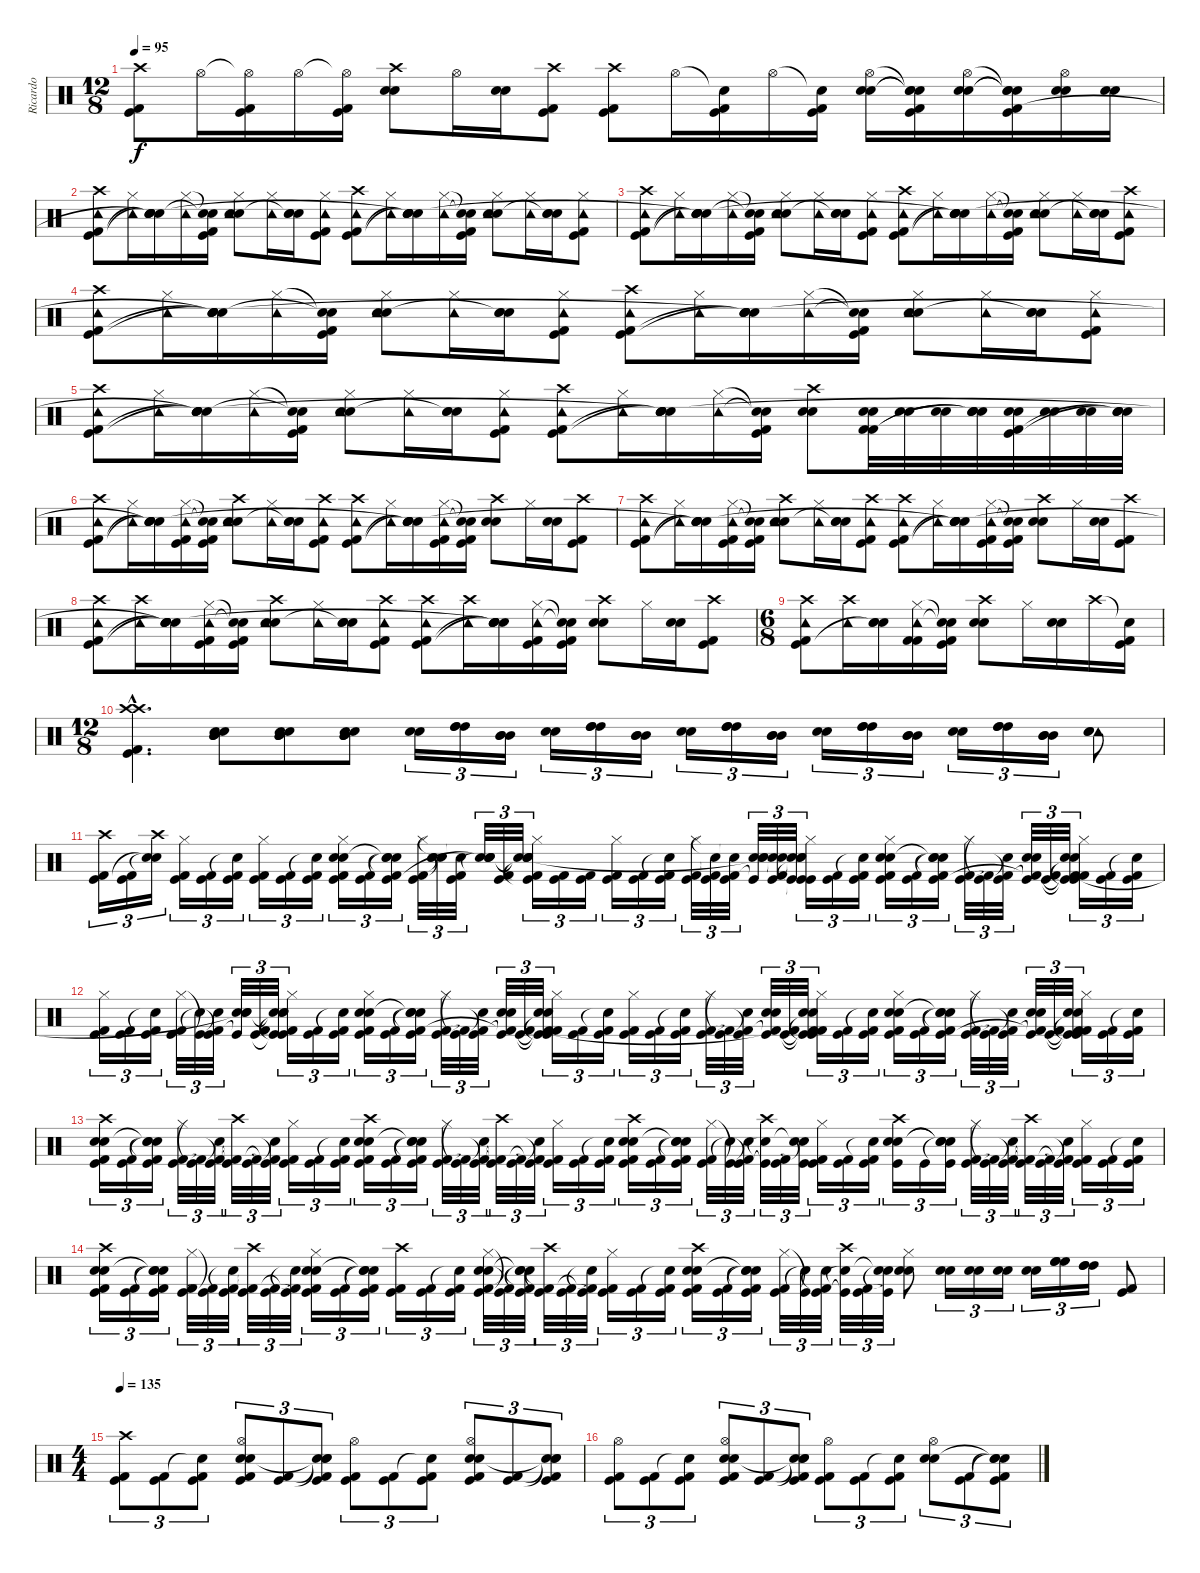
\track ("Ricardo" "Ricardo") {instrument percussion}
\staff {score}
\articulation defaults
\ts (12 8)
\tempo 95
\clef neutral
\ks c
("Crash high (hit)" "Kick (hit)" "Kick (hit) 2").8{dy f} "Hi-Hat (open)".16 ("Hi-Hat (open)"{t} "Kick (hit)" "Kick (hit) 2").16 "Hi-Hat (open)".16 ("Hi-Hat (open)"{t} "Kick (hit)" "Kick (hit) 2").16 ("Crash high (hit)" "Electric Snare (hit)" "Snare (hit) 2").8 "Hi-Hat (open)".16 ("Electric Snare (hit)" "Snare (hit) 2").16 ("Crash high (hit)" "Kick (hit)" "Kick (hit) 2").8 ("Crash high (hit)" "Kick (hit)" "Kick (hit) 2").8 "Hi-Hat (open)".16 ("Snare (hit)"{t} "Kick (hit)" "Kick (hit) 2").16 "Hi-Hat (open)".16 ("Snare (hit)"{t} "Kick (hit)" "Kick (hit) 2").16 ("Hi-Hat (open)" "Electric Snare (hit)" "Snare (hit) 2").16 ("Snare (hit)"{t} "Snare (hit)"{t} "Snare (hit)"{t} "Kick (hit)" "Kick (hit) 2").16 ("Hi-Hat (open)" "Electric Snare (hit)" "Snare (hit) 2").16 ("Snare (hit)"{t} "Snare (hit)"{t} "Snare (hit)"{t} "Kick (hit)" "Kick (hit) 2").16 ("Hi-Hat (open)" "Electric Snare (hit)" "Snare (hit) 2").16 ("Electric Snare (hit)" "Snare (hit) 2").16 |
("Crash high (hit)" "Tambourine (hit)" "Kick (hit) 2" "Kick (hit)").8 ("Hi-Hat (closed)" "Tambourine (hit)").16 ("Electric Snare (hit)" "Snare (hit) 2" "Snare (hit)"{t} "Snare (hit)"{t} "Snare (hit)"{t}).16 ("Hi-Hat (closed)" "Tambourine (hit)").16 ("Snare (hit)"{t} "Kick (hit)" "Kick (hit) 2" "Snare (hit)"{t}).16 ("Hi-Hat (closed)" "Electric Snare (hit)" "Snare (hit) 2" "Tambourine (hit)").8 ("Hi-Hat (closed)" "Tambourine (hit)").16 ("Electric Snare (hit)" "Snare (hit) 2" "Snare (hit)"{t}).16 ("Hi-Hat (closed)" "Tambourine (hit)" "Kick (hit)" "Kick (hit) 2").8 ("Crash high (hit)" "Tambourine (hit)" "Kick (hit)" "Kick (hit) 2").8 ("Hi-Hat (closed)" "Tambourine (hit)").16 ("Electric Snare (hit)" "Snare (hit) 2" "Snare (hit)"{t} "Snare (hit)"{t} "Snare (hit)"{t}).16 ("Hi-Hat (closed)" "Tambourine (hit)").16 ("Snare (hit)"{t} "Snare (hit)"{t} "Kick (hit) 2" "Kick (hit)").16 ("Hi-Hat (closed)" "Electric Snare (hit)" "Snare (hit) 2" "Tambourine (hit)").8 ("Hi-Hat (closed)" "Tambourine (hit)").16 ("Electric Snare (hit)" "Snare (hit) 2" "Snare (hit)"{t}).16 ("Hi-Hat (closed)" "Tambourine (hit)" "Kick (hit)" "Kick (hit) 2").8 |
("Crash high (hit)" "Tambourine (hit)" "Kick (hit) 2" "Kick (hit)").8 ("Hi-Hat (closed)" "Tambourine (hit)").16 ("Electric Snare (hit)" "Snare (hit) 2" "Snare (hit)"{t} "Snare (hit)"{t} "Snare (hit)"{t}).16 ("Hi-Hat (closed)" "Tambourine (hit)").16 ("Snare (hit)"{t} "Kick (hit)" "Kick (hit) 2" "Snare (hit)"{t}).16 ("Hi-Hat (closed)" "Electric Snare (hit)" "Snare (hit) 2" "Tambourine (hit)").8 ("Hi-Hat (closed)" "Tambourine (hit)").16 ("Electric Snare (hit)" "Snare (hit) 2" "Snare (hit)"{t}).16 ("Hi-Hat (closed)" "Tambourine (hit)" "Kick (hit)" "Kick (hit) 2").8 ("Crash high (hit)" "Tambourine (hit)" "Kick (hit)" "Kick (hit) 2").8 ("Hi-Hat (closed)" "Tambourine (hit)").16 ("Electric Snare (hit)" "Snare (hit) 2" "Snare (hit)"{t} "Snare (hit)"{t} "Snare (hit)"{t}).16 ("Hi-Hat (closed)" "Tambourine (hit)").16 ("Snare (hit)"{t} "Snare (hit)"{t} "Kick (hit) 2" "Kick (hit)").16 ("Hi-Hat (closed)" "Electric Snare (hit)" "Snare (hit) 2" "Tambourine (hit)").8 ("Hi-Hat (closed)" "Tambourine (hit)").16 ("Electric Snare (hit)" "Snare (hit) 2" "Snare (hit)"{t}).16 ("Crash high (hit)" "Tambourine (hit)" "Kick (hit)" "Kick (hit) 2").8 |
("Crash high (hit)" "Tambourine (hit)" "Kick (hit) 2" "Kick (hit)").8 ("Hi-Hat (closed)" "Tambourine (hit)").16 ("Electric Snare (hit)" "Snare (hit) 2" "Snare (hit)"{t} "Snare (hit)"{t} "Snare (hit)"{t}).16 ("Hi-Hat (closed)" "Tambourine (hit)").16 ("Snare (hit)"{t} "Kick (hit)" "Kick (hit) 2" "Snare (hit)"{t}).16 ("Hi-Hat (closed)" "Electric Snare (hit)" "Snare (hit) 2" "Tambourine (hit)").8 ("Hi-Hat (closed)" "Tambourine (hit)").16 ("Electric Snare (hit)" "Snare (hit) 2" "Snare (hit)"{t}).16 ("Hi-Hat (closed)" "Tambourine (hit)" "Kick (hit)" "Kick (hit) 2").8 ("Crash high (hit)" "Tambourine (hit)" "Kick (hit)" "Kick (hit) 2").8 ("Hi-Hat (closed)" "Tambourine (hit)").16 ("Electric Snare (hit)" "Snare (hit) 2" "Snare (hit)"{t} "Snare (hit)"{t} "Snare (hit)"{t}).16 ("Hi-Hat (closed)" "Tambourine (hit)").16 ("Snare (hit)"{t} "Snare (hit)"{t} "Kick (hit) 2" "Kick (hit)").16 ("Hi-Hat (closed)" "Electric Snare (hit)" "Snare (hit) 2" "Tambourine (hit)").8 ("Hi-Hat (closed)" "Tambourine (hit)").16 ("Electric Snare (hit)" "Snare (hit) 2" "Snare (hit)"{t}).16 ("Hi-Hat (closed)" "Tambourine (hit)" "Kick (hit)" "Kick (hit) 2").8 |
("Crash high (hit)" "Tambourine (hit)" "Kick (hit) 2" "Kick (hit)").8 ("Hi-Hat (closed)" "Tambourine (hit)").16 ("Electric Snare (hit)" "Snare (hit) 2" "Snare (hit)"{t} "Snare (hit)"{t} "Snare (hit)"{t}).16 ("Hi-Hat (closed)" "Tambourine (hit)").16 ("Snare (hit)"{t} "Kick (hit)" "Kick (hit) 2" "Snare (hit)"{t}).16 ("Hi-Hat (closed)" "Electric Snare (hit)" "Snare (hit) 2" "Tambourine (hit)").8 ("Hi-Hat (closed)" "Tambourine (hit)").16 ("Electric Snare (hit)" "Snare (hit) 2" "Snare (hit)"{t}).16 ("Hi-Hat (closed)" "Tambourine (hit)" "Kick (hit)" "Kick (hit) 2").8 ("Crash high (hit)" "Tambourine (hit)" "Kick (hit)" "Kick (hit) 2").8 ("Hi-Hat (closed)" "Tambourine (hit)").16 ("Electric Snare (hit)" "Snare (hit) 2" "Snare (hit)"{t} "Snare (hit)"{t} "Snare (hit)"{t}).16 ("Hi-Hat (closed)" "Tambourine (hit)").16 ("Snare (hit)"{t} "Snare (hit)"{t} "Kick (hit) 2" "Kick (hit)").16 ("Crash high (hit)" "Electric Snare (hit)" "Snare (hit) 2").8 ("Electric Snare (hit)" "Snare (hit) 2" "Kick (hit) 2" "Kick (hit) 2").32 ("Electric Snare (hit)" "Snare (hit) 2").32 ("Electric Snare (hit)" "Snare (hit) 2").32 ("Electric Snare (hit)" "Snare (hit) 2" "Snare (hit)"{t} "Snare (hit)"{t}).32 ("Electric Snare (hit)" "Snare (hit) 2" "Kick (hit)" "Kick (hit) 2").32 ("Electric Snare (hit)" "Snare (hit) 2").32 ("Electric Snare (hit)" "Snare (hit) 2").32 ("Electric Snare (hit)" "Snare (hit) 2" "Snare (hit)"{t} "Snare (hit)"{t}).32 |
("Crash high (hit)" "Tambourine (hit)" "Kick (hit)" "Kick (hit) 2").8 ("Hi-Hat (closed)" "Tambourine (hit)").16 ("Electric Snare (hit)" "Snare (hit) 2" "Snare (hit)"{t} "Snare (hit)"{t} "Snare (hit)"{t}).16 ("Hi-Hat (closed)" "Tambourine (hit)" "Kick (hit)" "Kick (hit) 2").16 ("Snare (hit)"{t} "Snare (hit)"{t} "Kick (hit)" "Kick (hit) 2").16 ("Crash high (hit)" "Electric Snare (hit)" "Snare (hit) 2" "Tambourine (hit)").8 ("Hi-Hat (closed)" "Tambourine (hit)").16 ("Electric Snare (hit)" "Snare (hit) 2" "Snare (hit)"{t}).16 ("Crash high (hit)" "Tambourine (hit)" "Kick (hit)" "Kick (hit) 2").8 ("Crash high (hit)" "Tambourine (hit)" "Kick (hit)" "Kick (hit) 2").8 ("Hi-Hat (closed)" "Tambourine (hit)").16 ("Electric Snare (hit)" "Snare (hit) 2" "Snare (hit)"{t} "Snare (hit)"{t} "Snare (hit)"{t}).16 ("Hi-Hat (closed)" "Tambourine (hit)" "Kick (hit)" "Kick (hit) 2").16 ("Snare (hit)"{t} "Snare (hit)"{t} "Kick (hit)" "Kick (hit) 2").16 ("Crash high (hit)" "Electric Snare (hit)" "Snare (hit) 2").8 "Hi-Hat (closed)".16 ("Electric Snare (hit)" "Snare (hit) 2").16 ("Crash high (hit)" "Kick (hit)" "Kick (hit) 2").8 |
("Crash high (hit)" "Tambourine (hit)" "Kick (hit)" "Kick (hit) 2").8 ("Hi-Hat (closed)" "Tambourine (hit)").16 ("Electric Snare (hit)" "Snare (hit) 2" "Snare (hit)"{t} "Snare (hit)"{t} "Snare (hit)"{t}).16 ("Hi-Hat (closed)" "Tambourine (hit)" "Kick (hit)" "Kick (hit) 2").16 ("Snare (hit)"{t} "Snare (hit)"{t} "Kick (hit)" "Kick (hit) 2").16 ("Crash high (hit)" "Electric Snare (hit)" "Snare (hit) 2" "Tambourine (hit)").8 ("Hi-Hat (closed)" "Tambourine (hit)").16 ("Electric Snare (hit)" "Snare (hit) 2" "Snare (hit)"{t}).16 ("Crash high (hit)" "Tambourine (hit)" "Kick (hit)" "Kick (hit) 2").8 ("Crash high (hit)" "Tambourine (hit)" "Kick (hit)" "Kick (hit) 2").8 ("Hi-Hat (closed)" "Tambourine (hit)").16 ("Electric Snare (hit)" "Snare (hit) 2" "Snare (hit)"{t} "Snare (hit)"{t} "Snare (hit)"{t}).16 ("Hi-Hat (closed)" "Tambourine (hit)" "Kick (hit)" "Kick (hit) 2").16 ("Snare (hit)"{t} "Snare (hit)"{t} "Kick (hit)" "Kick (hit) 2").16 ("Crash high (hit)" "Electric Snare (hit)" "Snare (hit) 2").8 "Hi-Hat (closed)".16 ("Electric Snare (hit)" "Snare (hit) 2").16 ("Crash high (hit)" "Kick (hit)" "Kick (hit) 2").8 |
("Crash high (hit)" "Tambourine (hit)" "Kick (hit)" "Kick (hit) 2").8 ("Crash high (hit)" "Tambourine (hit)").16 ("Electric Snare (hit)" "Snare (hit) 2" "Snare (hit)"{t} "Snare (hit)"{t} "Snare (hit)"{t}).16 ("Hi-Hat (closed)" "Tambourine (hit)" "Kick (hit)" "Kick (hit) 2").16 ("Snare (hit)"{t} "Snare (hit)"{t} "Kick (hit)" "Kick (hit) 2").16 ("Crash high (hit)" "Electric Snare (hit)" "Snare (hit) 2" "Tambourine (hit)").8 ("Hi-Hat (closed)" "Tambourine (hit)").16 ("Electric Snare (hit)" "Snare (hit) 2" "Snare (hit)"{t}).16 ("Crash high (hit)" "Tambourine (hit)" "Kick (hit)" "Kick (hit) 2").8 ("Crash high (hit)" "Tambourine (hit)" "Kick (hit)" "Kick (hit) 2").8 ("Crash high (hit)" "Tambourine (hit)").16 ("Electric Snare (hit)" "Snare (hit) 2" "Snare (hit)"{t} "Snare (hit)"{t} "Snare (hit)"{t}).16 ("Hi-Hat (closed)" "Tambourine (hit)" "Kick (hit)" "Kick (hit) 2").16 ("Snare (hit)"{t} "Snare (hit)"{t} "Kick (hit)" "Kick (hit) 2").16 ("Crash high (hit)" "Electric Snare (hit)" "Snare (hit) 2").8 "Hi-Hat (closed)".16 ("Electric Snare (hit)" "Snare (hit) 2").16 ("Crash high (hit)" "Kick (hit)" "Kick (hit) 2").8 |
\ts (6 8)
("Crash high (hit)" "Kick (hit) 2" "Kick (hit)" "Tambourine (hit)").8 ("Crash high (hit)" "Tambourine (hit)").16 ("Electric Snare (hit)" "Snare (hit) 2" "Snare (hit)"{t}).16 ("Hi-Hat (closed)" "Tambourine (hit)" "Kick (hit) 2" "Kick (hit) 2").16 ("Snare (hit)"{t} "Snare (hit)"{t} "Kick (hit)" "Kick (hit) 2").16 ("Crash high (hit)" "Electric Snare (hit)" "Snare (hit) 2").8 "Hi-Hat (closed)".16 ("Electric Snare (hit)" "Snare (hit) 2").16 "Crash high (hit)".16 ("Snare (hit)"{t} "Kick (hit)" "Kick (hit) 2").16 |
\ts (12 8)
("Crash high (hit)"{hac} "Crash high (hit)"{hac} "Kick (hit)"{hac} "Kick (hit) 2"{hac}).4{d} ("Electric Snare (hit)" "Snare (hit) 2" "Mid Tom (hit)" "Mid Tom (hit)" "Mid Tom (hit)").8 ("Electric Snare (hit)" "Snare (hit) 2" "Mid Tom (hit)" "Mid Tom (hit)" "Mid Tom (hit)").8 ("Electric Snare (hit)" "Snare (hit) 2" "Mid Tom (hit)" "Mid Tom (hit)" "Mid Tom (hit)").8 ("Electric Snare (hit)" "Snare (hit) 2").16{tu (3 2)} ("High Tom (hit)" "High Tom (hit)" "High Tom (hit)").16{tu (3 2)} ("Mid Tom (hit)" "Mid Tom (hit)" "Mid Tom (hit)").16{tu (3 2)} ("Electric Snare (hit)" "Snare (hit) 2").16{tu (3 2)} ("High Tom (hit)" "High Tom (hit)" "High Tom (hit)").16{tu (3 2)} ("Mid Tom (hit)" "Mid Tom (hit)" "Mid Tom (hit)").16{tu (3 2)} ("Electric Snare (hit)" "Snare (hit) 2").16{tu (3 2)} ("High Tom (hit)" "High Tom (hit)" "High Tom (hit)").16{tu (3 2)} ("Mid Tom (hit)" "Mid Tom (hit)" "Mid Tom (hit)").16{tu (3 2)} ("Electric Snare (hit)" "Snare (hit) 2").16{tu (3 2)} ("High Tom (hit)" "High Tom (hit)" "High Tom (hit)").16{tu (3 2)} ("Mid Tom (hit)" "Mid Tom (hit)" "Mid Tom (hit)").16{tu (3 2)} ("Electric Snare (hit)" "Snare (hit) 2").16{tu (3 2)} ("High Tom (hit)" "High Tom (hit)" "High Tom (hit)").16{tu (3 2)} ("Mid Tom (hit)" "Mid Tom (hit)" "Mid Tom (hit)").16{tu (3 2)} ("Tambourine (hit)" "Electric Snare (hit)" "Snare (hit) 2").8 |
("Crash high (hit)" "Kick (hit) 2" "Kick (hit)").16{tu (3 2)} ("Kick (hit)" "Kick (hit) 2").16{tu (3 2)} ("Crash high (hit)" "Snare (hit)"{t} "Snare (hit)"{t}).16{tu (3 2)} ("Hi-Hat (closed)" "Kick (hit)" "Kick (hit) 2").16{tu (3 2)} ("Kick (hit)" "Kick (hit) 2").16{tu (3 2)} ("Snare (hit)"{t} "Kick (hit)" "Kick (hit) 2").16{tu (3 2)} ("Hi-Hat (closed)" "Kick (hit)" "Kick (hit) 2").16{tu (3 2)} ("Kick (hit)" "Kick (hit) 2").16{tu (3 2)} ("Snare (hit)"{t} "Kick (hit)" "Kick (hit) 2").16{tu (3 2)} ("Hi-Hat (closed)" "Electric Snare (hit)" "Snare (hit) 2" "Kick (hit)" "Kick (hit) 2").16{tu (3 2)} ("Kick (hit)" "Kick (hit) 2").16{tu (3 2)} ("Snare (hit)"{t} "Snare (hit)"{t} "Snare (hit)"{t} "Kick (hit)" "Kick (hit) 2").16{tu (3 2)} ("Hi-Hat (closed)" "Kick (hit)" "Kick (hit) 2").32{tu (3 2)} ("Snare (hit)"{t} "Snare (hit)"{t} "Snare (hit)"{t}).32{tu (3 2)} ("Snare (hit)"{t} "Kick (hit)" "Kick (hit) 2").32{tu (3 2)} ("Electric Snare (hit)" "Snare (hit) 2" "Snare (hit)"{t} "Snare (hit)"{t}).32{tu (3 2)} ("Kick (hit)" "Kick (hit) 2").32{tu (3 2)} ("Snare (hit)"{t} "Snare (hit)"{t} "Snare (hit)"{t} "Snare (hit)"{t}).32{tu (3 2)} ("Hi-Hat (closed)" "Kick (hit)" "Kick (hit) 2").16{tu (3 2)} ("Kick (hit)" "Kick (hit) 2").16{tu (3 2)} ("Kick (hit)" "Kick (hit) 2").16{tu (3 2)} ("Hi-Hat (closed)" "Kick (hit)" "Kick (hit) 2").16{tu (3 2)} ("Kick (hit)" "Kick (hit) 2").16{tu (3 2)} ("Snare (hit)"{t} "Kick (hit)" "Kick (hit) 2").16{tu (3 2)} ("Hi-Hat (closed)" "Kick (hit)" "Kick (hit) 2").32{tu (3 2)} ("Snare (hit)"{t} "Kick (hit)"{t} "Kick (hit) 2"{t}).32{tu (3 2)} ("Snare (hit)"{t} "Kick (hit)" "Kick (hit) 2").32{tu (3 2)} ("Electric Snare (hit)" "Snare (hit) 2" "Kick (hit)"{t} "Snare (hit)"{t}).32{tu (3 2)} ("Snare (hit)"{t} "Snare (hit)"{t} "Kick (hit)" "Kick (hit) 2").32{tu (3 2)} ("Snare (hit)"{t} "Snare (hit)"{t} "Kick (hit)"{t} "Snare (hit)"{t}).32{tu (3 2)} ("Hi-Hat (closed)" "Kick (hit)" "Kick (hit)").16{tu (3 2)} ("Kick (hit)" "Kick (hit) 2").16{tu (3 2)} ("Snare (hit)"{t} "Kick (hit) 2" "Kick (hit)").16{tu (3 2)} ("Hi-Hat (closed)" "Electric Snare (hit)" "Snare (hit) 2" "Kick (hit)" "Kick (hit) 2").16{tu (3 2)} ("Kick (hit)" "Kick (hit) 2").16{tu (3 2)} ("Snare (hit)"{t} "Snare (hit)"{t} "Snare (hit)"{t} "Kick (hit)" "Kick (hit) 2").16{tu (3 2)} ("Hi-Hat (closed)" "Kick (hit)" "Kick (hit) 2").32{tu (3 2)} ("Kick (hit)"{t} "Kick (hit) 2"{t}).32{tu (3 2)} ("Snare (hit)"{t} "Kick (hit)" "Kick (hit) 2").32{tu (3 2)} ("Electric Snare (hit)" "Snare (hit) 2" "Kick (hit)"{t} "Kick (hit) 2"{t}).32{tu (3 2)} ("Kick (hit)" "Kick (hit) 2").32{tu (3 2)} ("Snare (hit)"{t} "Snare (hit)"{t} "Kick (hit)"{t} "Kick (hit) 2"{t}).32{tu (3 2)} ("Hi-Hat (closed)" "Kick (hit)" "Kick (hit) 2").16{tu (3 2)} ("Kick (hit)" "Kick (hit) 2").16{tu (3 2)} ("Snare (hit)"{t} "Kick (hit)" "Kick (hit) 2").16{tu (3 2)} |
("Hi-Hat (closed)" "Kick (hit)" "Kick (hit) 2").16{tu (3 2)} ("Kick (hit)" "Kick (hit) 2").16{tu (3 2)} ("Snare (hit)"{t} "Kick (hit)" "Kick (hit) 2").16{tu (3 2)} ("Hi-Hat (closed)" "Kick (hit)" "Kick (hit) 2").32{tu (3 2)} ("Kick (hit)"{t} "Snare (hit)"{t}).32{tu (3 2)} ("Snare (hit)"{t} "Kick (hit)" "Kick (hit) 2").32{tu (3 2)} ("Electric Snare (hit)" "Snare (hit) 2" "Kick (hit)"{t} "Snare (hit)"{t}).32{tu (3 2)} ("Kick (hit)" "Kick (hit) 2").32{tu (3 2)} ("Snare (hit)"{t} "Snare (hit)"{t} "Kick (hit)"{t} "Snare (hit)"{t}).32{tu (3 2)} ("Hi-Hat (closed)" "Kick (hit)" "Kick (hit) 2").16{tu (3 2)} ("Kick (hit)" "Kick (hit) 2").16{tu (3 2)} ("Snare (hit)"{t} "Kick (hit) 2" "Kick (hit)").16{tu (3 2)} ("Hi-Hat (closed)" "Electric Snare (hit)" "Snare (hit) 2" "Kick (hit)" "Kick (hit) 2").16{tu (3 2)} ("Kick (hit)" "Kick (hit) 2").16{tu (3 2)} ("Snare (hit)"{t} "Snare (hit)"{t} "Snare (hit)"{t} "Kick (hit) 2" "Kick (hit)").16{tu (3 2)} ("Hi-Hat (closed)" "Kick (hit)" "Kick (hit) 2").32{tu (3 2)} ("Kick (hit)"{t} "Kick (hit) 2"{t}).32{tu (3 2)} ("Snare (hit)"{t} "Kick (hit)" "Kick (hit) 2").32{tu (3 2)} ("Electric Snare (hit)" "Snare (hit) 2" "Kick (hit)"{t} "Kick (hit) 2"{t}).32{tu (3 2)} ("Kick (hit)" "Kick (hit) 2").32{tu (3 2)} ("Snare (hit)"{t} "Snare (hit)"{t} "Kick (hit)"{t} "Kick (hit) 2"{t}).32{tu (3 2)} ("Hi-Hat (closed)" "Kick (hit) 2" "Kick (hit)").16{tu (3 2)} ("Kick (hit) 2" "Kick (hit)").16{tu (3 2)} ("Snare (hit)"{t} "Kick (hit) 2" "Kick (hit)").16{tu (3 2)} ("Hi-Hat (closed)" "Kick (hit)" "Kick (hit) 2").16{tu (3 2)} ("Kick (hit)" "Kick (hit) 2").16{tu (3 2)} ("Snare (hit)"{t} "Kick (hit)" "Kick (hit) 2").16{tu (3 2)} ("Hi-Hat (closed)" "Kick (hit)" "Kick (hit) 2").32{tu (3 2)} ("Kick (hit)"{t} "Kick (hit) 2"{t}).32{tu (3 2)} ("Snare (hit)"{t} "Kick (hit)" "Kick (hit) 2").32{tu (3 2)} ("Electric Snare (hit)" "Snare (hit) 2" "Kick (hit)"{t} "Kick (hit) 2"{t}).32{tu (3 2)} ("Kick (hit)" "Kick (hit) 2").32{tu (3 2)} ("Snare (hit)"{t} "Snare (hit)"{t} "Kick (hit)"{t} "Kick (hit) 2"{t}).32{tu (3 2)} ("Hi-Hat (closed)" "Kick (hit)" "Kick (hit) 2").16{tu (3 2)} ("Kick (hit)" "Kick (hit) 2").16{tu (3 2)} ("Snare (hit)"{t} "Kick (hit)" "Kick (hit) 2").16{tu (3 2)} ("Hi-Hat (closed)" "Electric Snare (hit)" "Snare (hit) 2" "Kick (hit)" "Kick (hit) 2").16{tu (3 2)} ("Kick (hit)" "Kick (hit) 2").16{tu (3 2)} ("Snare (hit)"{t} "Snare (hit)"{t} "Snare (hit)"{t} "Kick (hit)" "Kick (hit) 2").16{tu (3 2)} ("Hi-Hat (closed)" "Kick (hit)" "Kick (hit) 2").32{tu (3 2)} ("Kick (hit)"{t} "Kick (hit) 2"{t}).32{tu (3 2)} ("Snare (hit)"{t} "Kick (hit)" "Kick (hit) 2").32{tu (3 2)} ("Electric Snare (hit)" "Snare (hit) 2" "Kick (hit)"{t} "Kick (hit) 2"{t}).32{tu (3 2)} ("Kick (hit)" "Kick (hit) 2").32{tu (3 2)} ("Snare (hit)"{t} "Snare (hit)"{t} "Kick (hit)"{t} "Kick (hit) 2"{t}).32{tu (3 2)} ("Hi-Hat (closed)" "Kick (hit)" "Kick (hit) 2").16{tu (3 2)} ("Kick (hit)" "Kick (hit) 2").16{tu (3 2)} ("Snare (hit)"{t} "Kick (hit)" "Kick (hit) 2").16{tu (3 2)} |
("Crash high (hit)" "Electric Snare (hit)" "Snare (hit) 2" "Kick (hit)" "Kick (hit) 2").16{tu (3 2)} ("Kick (hit)" "Kick (hit) 2").16{tu (3 2)} ("Snare (hit)"{t} "Snare (hit)"{t} "Snare (hit)"{t} "Kick (hit)" "Kick (hit) 2").16{tu (3 2)} ("Hi-Hat (closed)" "Kick (hit)" "Kick (hit) 2").32{tu (3 2)} ("Kick (hit)"{t} "Kick (hit) 2"{t}).32{tu (3 2)} ("Snare (hit)"{t} "Kick (hit)" "Kick (hit) 2").32{tu (3 2)} ("Crash high (hit)" "Kick (hit)"{t} "Kick (hit) 2"{t}).32{tu (3 2)} ("Kick (hit)" "Kick (hit) 2").32{tu (3 2)} ("Snare (hit)"{t} "Kick (hit)"{t} "Kick (hit) 2"{t}).32{tu (3 2)} ("Hi-Hat (closed)" "Kick (hit)" "Kick (hit) 2").16{tu (3 2)} ("Kick (hit)" "Kick (hit) 2").16{tu (3 2)} ("Snare (hit)"{t} "Kick (hit)" "Kick (hit) 2").16{tu (3 2)} ("Crash high (hit)" "Electric Snare (hit)" "Snare (hit) 2" "Kick (hit)" "Kick (hit) 2").16{tu (3 2)} ("Kick (hit)" "Kick (hit) 2").16{tu (3 2)} ("Snare (hit)"{t} "Snare (hit)"{t} "Snare (hit)"{t} "Kick (hit)" "Kick (hit) 2").16{tu (3 2)} ("Hi-Hat (closed)" "Kick (hit)" "Kick (hit) 2").32{tu (3 2)} ("Kick (hit)"{t} "Kick (hit) 2"{t}).32{tu (3 2)} ("Snare (hit)"{t} "Kick (hit)" "Kick (hit) 2").32{tu (3 2)} ("Crash high (hit)" "Kick (hit)"{t} "Kick (hit) 2"{t}).32{tu (3 2)} ("Kick (hit)" "Kick (hit) 2").32{tu (3 2)} ("Snare (hit)"{t} "Kick (hit)"{t} "Kick (hit) 2"{t}).32{tu (3 2)} ("Hi-Hat (closed)" "Kick (hit)" "Kick (hit) 2").16{tu (3 2)} ("Kick (hit)" "Kick (hit) 2").16{tu (3 2)} ("Snare (hit)"{t} "Kick (hit)" "Kick (hit) 2").16{tu (3 2)} ("Crash high (hit)" "Electric Snare (hit)" "Snare (hit) 2" "Kick (hit)" "Kick (hit) 2").16{tu (3 2)} ("Kick (hit)" "Kick (hit) 2").16{tu (3 2)} ("Snare (hit)"{t} "Snare (hit)"{t} "Snare (hit)"{t} "Kick (hit)" "Kick (hit) 2").16{tu (3 2)} ("Hi-Hat (closed)" "Kick (hit)" "Kick (hit) 2").32{tu (3 2)} ("Kick (hit)"{t} "Snare (hit)"{t}).32{tu (3 2)} ("Snare (hit)"{t} "Kick (hit)" "Kick (hit) 2").32{tu (3 2)} ("Crash high (hit)" "Kick (hit)"{t} "Snare (hit)"{t}).32{tu (3 2)} ("Kick (hit)" "Kick (hit) 2").32{tu (3 2)} ("Snare (hit)"{t} "Kick (hit)"{t} "Snare (hit)"{t}).32{tu (3 2)} ("Hi-Hat (closed)" "Kick (hit) 2" "Kick (hit)").16{tu (3 2)} ("Kick (hit) 2" "Kick (hit)").16{tu (3 2)} ("Snare (hit)"{t} "Kick (hit) 2" "Kick (hit)").16{tu (3 2)} ("Crash high (hit)" "Electric Snare (hit)" "Snare (hit) 2" "Kick (hit)").16{tu (3 2)} "Kick (hit)".16{tu (3 2)} ("Snare (hit)"{t} "Snare (hit)"{t} "Snare (hit)"{t} "Kick (hit)").16{tu (3 2)} ("Hi-Hat (closed)" "Kick (hit)" "Kick (hit) 2").32{tu (3 2)} ("Kick (hit)"{t} "Kick (hit) 2"{t}).32{tu (3 2)} ("Snare (hit)"{t} "Kick (hit)" "Kick (hit) 2").32{tu (3 2)} ("Crash high (hit)" "Kick (hit)"{t} "Kick (hit) 2"{t}).32{tu (3 2)} ("Kick (hit)" "Kick (hit) 2").32{tu (3 2)} ("Snare (hit)"{t} "Kick (hit)"{t} "Kick (hit) 2"{t}).32{tu (3 2)} ("Hi-Hat (closed)" "Kick (hit)" "Kick (hit) 2").16{tu (3 2)} ("Kick (hit)" "Kick (hit) 2").16{tu (3 2)} ("Snare (hit)"{t} "Kick (hit)" "Kick (hit) 2").16{tu (3 2)} |
("Crash high (hit)" "Electric Snare (hit)" "Snare (hit) 2" "Kick (hit)" "Kick (hit) 2").16{tu (3 2)} ("Kick (hit)" "Kick (hit) 2").16{tu (3 2)} ("Snare (hit)"{t} "Snare (hit)"{t} "Snare (hit)"{t} "Kick (hit)" "Kick (hit) 2").16{tu (3 2)} ("Hi-Hat (closed)" "Kick (hit)" "Kick (hit) 2").32{tu (3 2)} ("Kick (hit)"{t} "Kick (hit) 2"{t}).32{tu (3 2)} ("Snare (hit)"{t} "Kick (hit)" "Kick (hit) 2").32{tu (3 2)} ("Crash high (hit)" "Kick (hit)"{t} "Kick (hit) 2"{t}).32{tu (3 2)} ("Kick (hit)" "Kick (hit) 2").32{tu (3 2)} ("Snare (hit)"{t} "Kick (hit)"{t} "Kick (hit) 2"{t}).32{tu (3 2)} ("Hi-Hat (closed)" "Electric Snare (hit)" "Snare (hit) 2" "Kick (hit)" "Kick (hit) 2").16{tu (3 2)} ("Kick (hit)" "Kick (hit) 2").16{tu (3 2)} ("Snare (hit)"{t} "Snare (hit)"{t} "Snare (hit)"{t} "Kick (hit)" "Kick (hit) 2").16{tu (3 2)} ("Crash high (hit)" "Kick (hit)" "Kick (hit) 2").16{tu (3 2)} ("Kick (hit)" "Kick (hit) 2").16{tu (3 2)} ("Snare (hit)"{t} "Kick (hit)" "Kick (hit) 2").16{tu (3 2)} ("Hi-Hat (closed)" "Electric Snare (hit)" "Snare (hit) 2" "Kick (hit)" "Kick (hit) 2").32{tu (3 2)} ("Kick (hit)"{t} "Kick (hit) 2"{t}).32{tu (3 2)} ("Snare (hit)"{t} "Snare (hit)"{t} "Snare (hit)"{t} "Kick (hit)" "Kick (hit) 2").32{tu (3 2)} ("Crash high (hit)" "Kick (hit)"{t} "Kick (hit) 2"{t}).32{tu (3 2)} ("Kick (hit)" "Kick (hit) 2").32{tu (3 2)} ("Snare (hit)"{t} "Kick (hit)"{t} "Kick (hit) 2"{t}).32{tu (3 2)} ("Hi-Hat (closed)" "Kick (hit)" "Kick (hit) 2").16{tu (3 2)} ("Kick (hit)" "Kick (hit) 2").16{tu (3 2)} ("Snare (hit)"{t} "Kick (hit)" "Kick (hit) 2").16{tu (3 2)} ("Crash high (hit)" "Electric Snare (hit)" "Snare (hit) 2" "Kick (hit)" "Kick (hit) 2").16{tu (3 2)} ("Kick (hit)" "Kick (hit) 2").16{tu (3 2)} ("Snare (hit)"{t} "Snare (hit)"{t} "Snare (hit)"{t} "Kick (hit)" "Kick (hit) 2").16{tu (3 2)} ("Hi-Hat (closed)" "Kick (hit)" "Kick (hit) 2").32{tu (3 2)} ("Kick (hit)"{t} "Snare (hit)"{t}).32{tu (3 2)} ("Snare (hit)"{t} "Kick (hit)" "Kick (hit) 2").32{tu (3 2)} ("Crash high (hit)" "Kick (hit)"{t} "Snare (hit)"{t}).32{tu (3 2)} ("Kick (hit)" "Kick (hit) 2").32{tu (3 2)} ("Snare (hit)"{t} "Kick (hit)"{t} "Snare (hit)"{t}).32{tu (3 2)} ("Hi-Hat (closed)" "Electric Snare (hit)" "Snare (hit) 2").8 ("Electric Snare (hit)" "Snare (hit) 2").16{tu (3 2)} ("Electric Snare (hit)" "Snare (hit) 2").16{tu (3 2)} ("Electric Snare (hit)" "Snare (hit) 2").16{tu (3 2)} ("Electric Snare (hit)" "Snare (hit) 2").16{tu (3 2)} ("High Floor Tom (hit)" "High Floor Tom (hit)" "High Floor Tom (hit)").16{tu (3 2)} ("High Tom (hit)" "High Tom (hit)" "High Tom (hit)").16{tu (3 2)} ("Kick (hit)" "Kick (hit) 2").8 |
\ts (4 4)
\tempo 141
\tempo 135
("Crash high (hit)" "Kick (hit) 2" "Kick (hit)").8{tu (3 2)} ("Kick (hit) 2" "Kick (hit)").8{tu (3 2)} ("Snare (hit)"{t} "Kick (hit) 2" "Kick (hit)").8{tu (3 2)} ("Hi-Hat (open)" "Electric Snare (hit)" "Snare (hit) 2" "Kick (hit) 2" "Kick (hit)").8{tu (3 2)} ("Kick (hit) 2" "Kick (hit)").8{tu (3 2)} ("Snare (hit)"{t} "Snare (hit)"{t} "Snare (hit)"{t} "Kick (hit) 2" "Kick (hit)").8{tu (3 2)} ("Hi-Hat (open)" "Kick (hit) 2" "Kick (hit)").8{tu (3 2)} ("Kick (hit) 2" "Kick (hit)").8{tu (3 2)} ("Snare (hit)"{t} "Kick (hit) 2" "Kick (hit)").8{tu (3 2)} ("Hi-Hat (open)" "Electric Snare (hit)" "Snare (hit) 2" "Kick (hit) 2" "Kick (hit)").8{tu (3 2)} ("Kick (hit) 2" "Kick (hit)").8{tu (3 2)} ("Snare (hit)"{t} "Snare (hit)"{t} "Snare (hit)"{t} "Kick (hit) 2" "Kick (hit)").8{tu (3 2)} |
("Hi-Hat (open)" "Kick (hit) 2" "Kick (hit)").8{tu (3 2)} ("Kick (hit) 2" "Kick (hit)").8{tu (3 2)} ("Snare (hit)"{t} "Kick (hit) 2" "Kick (hit)").8{tu (3 2)} ("Hi-Hat (open)" "Electric Snare (hit)" "Snare (hit) 2" "Kick (hit) 2" "Kick (hit)").8{tu (3 2)} ("Kick (hit) 2" "Kick (hit)").8{tu (3 2)} ("Snare (hit)"{t} "Snare (hit)"{t} "Snare (hit)"{t} "Kick (hit) 2" "Kick (hit)").8{tu (3 2)} ("Hi-Hat (open)" "Kick (hit) 2" "Kick (hit)").8{tu (3 2)} ("Kick (hit) 2" "Kick (hit)").8{tu (3 2)} ("Snare (hit)"{t} "Kick (hit) 2" "Kick (hit)").8{tu (3 2)} ("Hi-Hat (open)" "Electric Snare (hit)" "Snare (hit) 2").8{tu (3 2)} ("Kick (hit) 2" "Kick (hit)").8{tu (3 2)} ("Snare (hit)"{t} "Snare (hit)"{t} "Snare (hit)"{t} "Kick (hit) 2" "Kick (hit)").8{tu (3 2)}
